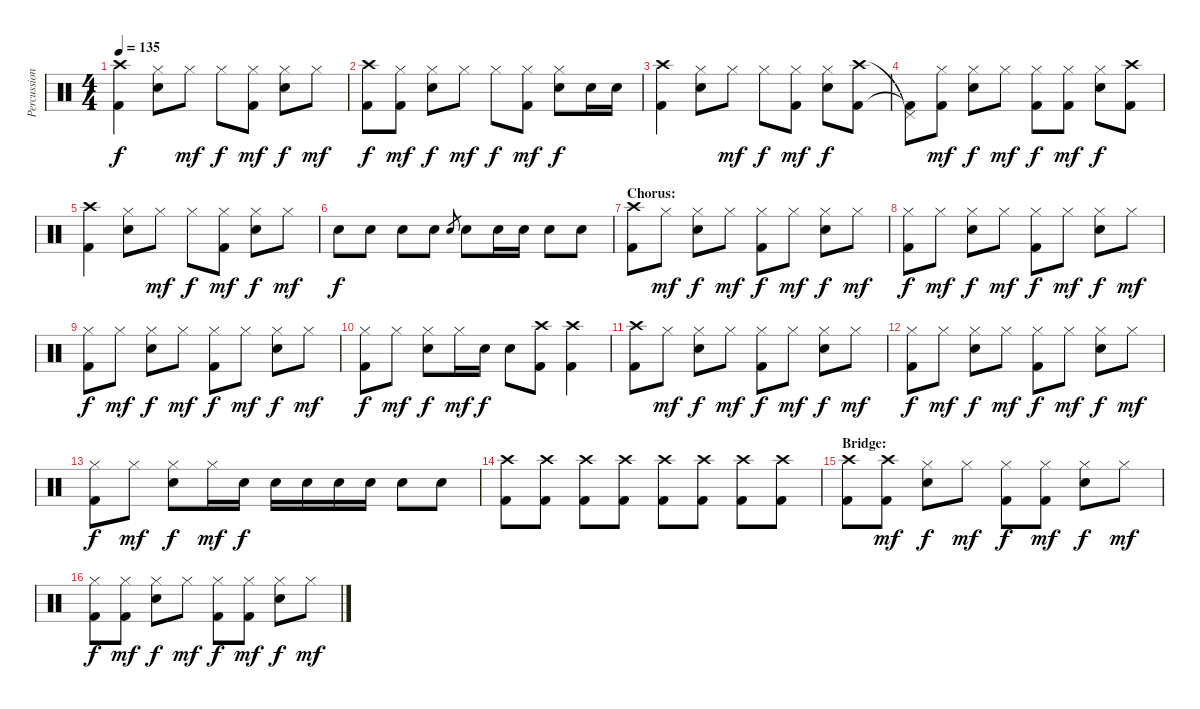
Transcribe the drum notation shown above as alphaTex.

\track ("Percussion" "Percussion") {instrument percussion}
\staff {score}
\articulation defaults
\ts (4 4)
\tempo 135
\clef neutral
\ks c
("Crash high (hit)" "Kick (hit) 2").4{dy f} ("Hi-Hat (closed)" "Snare (hit) 2").8 "Hi-Hat (closed)".8{dy mf} "Hi-Hat (closed)".8{dy f} ("Hi-Hat (closed)" "Kick (hit) 2").8{dy mf} ("Hi-Hat (closed)" "Snare (hit) 2").8{dy f} "Hi-Hat (closed)".8{dy mf} |
("Crash high (hit)" "Kick (hit) 2").8{dy f} ("Hi-Hat (closed)" "Kick (hit) 2").8{dy mf} ("Hi-Hat (closed)" "Snare (hit) 2").8{dy f} "Hi-Hat (closed)".8{dy mf} "Hi-Hat (closed)".8{dy f} ("Hi-Hat (closed)" "Kick (hit) 2").8{dy mf} ("Hi-Hat (closed)" "Snare (hit) 2").8{dy f} "Snare (hit) 2".16 "Snare (hit) 2".16 |
("Crash high (hit)" "Kick (hit) 2").4 ("Hi-Hat (closed)" "Snare (hit) 2").8 "Hi-Hat (closed)".8{dy mf} "Hi-Hat (closed)".8{dy f} ("Hi-Hat (closed)" "Kick (hit) 2").8{dy mf} ("Hi-Hat (closed)" "Snare (hit) 2").8{dy f} ("Crash high (hit)" "Kick (hit) 2").8 |
("Pedal Hi-Hat (hit)"{t} "Kick (hit) 2"{t}).8 ("Hi-Hat (closed)" "Kick (hit) 2").8{dy mf} ("Hi-Hat (closed)" "Snare (hit) 2").8{dy f} "Hi-Hat (closed)".8{dy mf} ("Hi-Hat (closed)" "Kick (hit) 2").8{dy f} ("Hi-Hat (closed)" "Kick (hit) 2").8{dy mf} ("Hi-Hat (closed)" "Snare (hit) 2").8{dy f} ("Crash high (hit)" "Kick (hit) 2").8 |
("Crash high (hit)" "Kick (hit) 2").4 ("Hi-Hat (closed)" "Snare (hit) 2").8 "Hi-Hat (closed)".8{dy mf} "Hi-Hat (closed)".8{dy f} ("Hi-Hat (closed)" "Kick (hit) 2").8{dy mf} ("Hi-Hat (closed)" "Snare (hit) 2").8{dy f} "Hi-Hat (closed)".8{dy mf} |
"Snare (hit) 2".8{dy f} "Snare (hit) 2".8 "Snare (hit) 2".8 "Snare (hit) 2".8 "Snare (hit) 2".8{gr} "Snare (hit) 2".8 "Snare (hit) 2".16 "Snare (hit) 2".16 "Snare (hit) 2".8 "Snare (hit) 2".8 |
\section ("" "Chorus:")
("Crash high (hit)" "Kick (hit) 2").8 "Hi-Hat (closed)".8{dy mf} ("Hi-Hat (closed)" "Snare (hit) 2").8{dy f} "Hi-Hat (closed)".8{dy mf} ("Hi-Hat (closed)" "Kick (hit) 2").8{dy f} "Hi-Hat (closed)".8{dy mf} ("Hi-Hat (closed)" "Snare (hit) 2").8{dy f} "Hi-Hat (closed)".8{dy mf} |
("Hi-Hat (closed)" "Kick (hit) 2").8{dy f} "Hi-Hat (closed)".8{dy mf} ("Hi-Hat (closed)" "Snare (hit) 2").8{dy f} "Hi-Hat (closed)".8{dy mf} ("Hi-Hat (closed)" "Kick (hit) 2").8{dy f} "Hi-Hat (closed)".8{dy mf} ("Hi-Hat (closed)" "Snare (hit) 2").8{dy f} "Hi-Hat (closed)".8{dy mf} |
("Hi-Hat (closed)" "Kick (hit) 2").8{dy f} "Hi-Hat (closed)".8{dy mf} ("Hi-Hat (closed)" "Snare (hit) 2").8{dy f} "Hi-Hat (closed)".8{dy mf} ("Hi-Hat (closed)" "Kick (hit) 2").8{dy f} "Hi-Hat (closed)".8{dy mf} ("Hi-Hat (closed)" "Snare (hit) 2").8{dy f} "Hi-Hat (closed)".8{dy mf} |
("Hi-Hat (closed)" "Kick (hit) 2").8{dy f} "Hi-Hat (closed)".8{dy mf} ("Hi-Hat (closed)" "Snare (hit) 2").8{dy f} "Hi-Hat (closed)".16{dy mf} "Snare (hit) 2".16{dy f} "Snare (hit) 2".8 ("Crash high (hit)" "Kick (hit) 2").8 ("Crash high (hit)" "Kick (hit) 2").4 |
("Crash high (hit)" "Kick (hit) 2").8 "Hi-Hat (closed)".8{dy mf} ("Hi-Hat (closed)" "Snare (hit) 2").8{dy f} "Hi-Hat (closed)".8{dy mf} ("Hi-Hat (closed)" "Kick (hit) 2").8{dy f} "Hi-Hat (closed)".8{dy mf} ("Hi-Hat (closed)" "Snare (hit) 2").8{dy f} "Hi-Hat (closed)".8{dy mf} |
("Hi-Hat (closed)" "Kick (hit) 2").8{dy f} "Hi-Hat (closed)".8{dy mf} ("Hi-Hat (closed)" "Snare (hit) 2").8{dy f} "Hi-Hat (closed)".8{dy mf} ("Hi-Hat (closed)" "Kick (hit) 2").8{dy f} "Hi-Hat (closed)".8{dy mf} ("Hi-Hat (closed)" "Snare (hit) 2").8{dy f} "Hi-Hat (closed)".8{dy mf} |
("Hi-Hat (closed)" "Kick (hit) 2").8{dy f} "Hi-Hat (closed)".8{dy mf} ("Hi-Hat (closed)" "Snare (hit) 2").8{dy f} "Hi-Hat (closed)".16{dy mf} "Snare (hit) 2".16{dy f} "Snare (hit) 2".16 "Snare (hit) 2".16 "Snare (hit) 2".16 "Snare (hit) 2".16 "Snare (hit) 2".8 "Snare (hit) 2".8 |
("Crash high (hit)" "Kick (hit) 2").8 ("Crash high (hit)" "Kick (hit) 2").8 ("Crash high (hit)" "Kick (hit) 2").8 ("Crash high (hit)" "Kick (hit) 2").8 ("Crash high (hit)" "Kick (hit) 2").8 ("Crash high (hit)" "Kick (hit) 2").8 ("Crash high (hit)" "Kick (hit) 2").8 ("Crash high (hit)" "Kick (hit) 2").8 |
\section ("" "Bridge:")
("Crash high (hit)" "Kick (hit) 2").8 ("Crash high (hit)" "Kick (hit) 2").8{dy mf} ("Hi-Hat (closed)" "Snare (hit) 2").8{dy f} "Hi-Hat (closed)".8{dy mf} ("Hi-Hat (closed)" "Kick (hit) 2").8{dy f} ("Hi-Hat (closed)" "Kick (hit) 2").8{dy mf} ("Hi-Hat (closed)" "Snare (hit) 2").8{dy f} "Hi-Hat (closed)".8{dy mf} |
("Hi-Hat (closed)" "Kick (hit) 2").8{dy f} ("Hi-Hat (closed)" "Kick (hit) 2").8{dy mf} ("Hi-Hat (closed)" "Snare (hit) 2").8{dy f} "Hi-Hat (closed)".8{dy mf} ("Hi-Hat (closed)" "Kick (hit) 2").8{dy f} ("Hi-Hat (closed)" "Kick (hit) 2").8{dy mf} ("Hi-Hat (closed)" "Snare (hit) 2").8{dy f} "Hi-Hat (closed)".8{dy mf}
